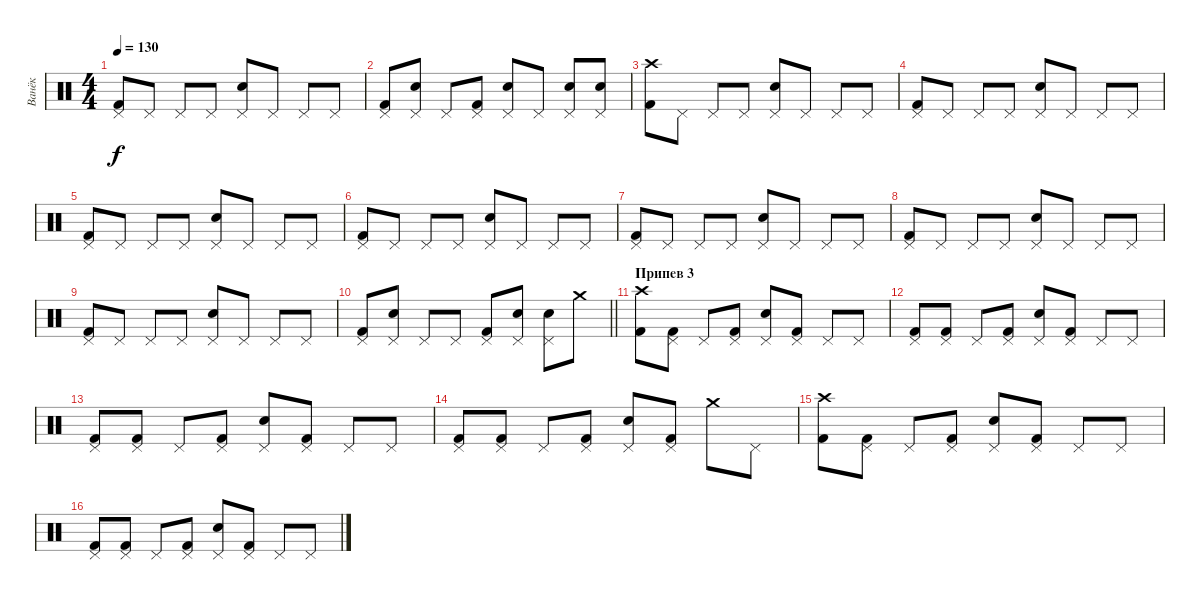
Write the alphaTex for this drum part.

\track ("Ванёк" "Ванёк") {instrument percussion}
\staff {score}
\articulation defaults
\ts (4 4)
\tempo 130
\clef neutral
\ks c
("Pedal Hi-Hat (hit)" "Kick (hit) 2").8{dy f} "Pedal Hi-Hat (hit)".8 "Pedal Hi-Hat (hit)".8 "Pedal Hi-Hat (hit)".8 ("Pedal Hi-Hat (hit)" "Snare (hit) 2").8 "Pedal Hi-Hat (hit)".8 "Pedal Hi-Hat (hit)".8 "Pedal Hi-Hat (hit)".8 |
("Pedal Hi-Hat (hit)" "Kick (hit) 2").8 ("Pedal Hi-Hat (hit)" "Snare (hit) 2").8 "Pedal Hi-Hat (hit)".8 ("Pedal Hi-Hat (hit)" "Kick (hit) 2").8 ("Pedal Hi-Hat (hit)" "Snare (hit) 2").8 "Pedal Hi-Hat (hit)".8 ("Pedal Hi-Hat (hit)" "Snare (hit) 2").8 ("Pedal Hi-Hat (hit)" "Snare (hit) 2").8 |
("Crash high (hit)" "Kick (hit) 2").8 "Pedal Hi-Hat (hit)".8 "Pedal Hi-Hat (hit)".8 "Pedal Hi-Hat (hit)".8 ("Pedal Hi-Hat (hit)" "Snare (hit) 2").8 "Pedal Hi-Hat (hit)".8 "Pedal Hi-Hat (hit)".8 "Pedal Hi-Hat (hit)".8 |
("Pedal Hi-Hat (hit)" "Kick (hit) 2").8 "Pedal Hi-Hat (hit)".8 "Pedal Hi-Hat (hit)".8 "Pedal Hi-Hat (hit)".8 ("Pedal Hi-Hat (hit)" "Snare (hit) 2").8 "Pedal Hi-Hat (hit)".8 "Pedal Hi-Hat (hit)".8 "Pedal Hi-Hat (hit)".8 |
("Pedal Hi-Hat (hit)" "Kick (hit) 2").8 "Pedal Hi-Hat (hit)".8 "Pedal Hi-Hat (hit)".8 "Pedal Hi-Hat (hit)".8 ("Pedal Hi-Hat (hit)" "Snare (hit) 2").8 "Pedal Hi-Hat (hit)".8 "Pedal Hi-Hat (hit)".8 "Pedal Hi-Hat (hit)".8 |
("Pedal Hi-Hat (hit)" "Kick (hit) 2").8 "Pedal Hi-Hat (hit)".8 "Pedal Hi-Hat (hit)".8 "Pedal Hi-Hat (hit)".8 ("Pedal Hi-Hat (hit)" "Snare (hit) 2").8 "Pedal Hi-Hat (hit)".8 "Pedal Hi-Hat (hit)".8 "Pedal Hi-Hat (hit)".8 |
("Pedal Hi-Hat (hit)" "Kick (hit) 2").8 "Pedal Hi-Hat (hit)".8 "Pedal Hi-Hat (hit)".8 "Pedal Hi-Hat (hit)".8 ("Pedal Hi-Hat (hit)" "Snare (hit) 2").8 "Pedal Hi-Hat (hit)".8 "Pedal Hi-Hat (hit)".8 "Pedal Hi-Hat (hit)".8 |
("Pedal Hi-Hat (hit)" "Kick (hit) 2").8 "Pedal Hi-Hat (hit)".8 "Pedal Hi-Hat (hit)".8 "Pedal Hi-Hat (hit)".8 ("Pedal Hi-Hat (hit)" "Snare (hit) 2").8 "Pedal Hi-Hat (hit)".8 "Pedal Hi-Hat (hit)".8 "Pedal Hi-Hat (hit)".8 |
("Pedal Hi-Hat (hit)" "Kick (hit) 2").8 "Pedal Hi-Hat (hit)".8 "Pedal Hi-Hat (hit)".8 "Pedal Hi-Hat (hit)".8 ("Pedal Hi-Hat (hit)" "Snare (hit) 2").8 "Pedal Hi-Hat (hit)".8 "Pedal Hi-Hat (hit)".8 "Pedal Hi-Hat (hit)".8 |
\barLineRight lightlight
("Pedal Hi-Hat (hit)" "Kick (hit) 2").8 ("Pedal Hi-Hat (hit)" "Snare (hit) 2").8 "Pedal Hi-Hat (hit)".8 "Pedal Hi-Hat (hit)".8 ("Pedal Hi-Hat (hit)" "Kick (hit) 2").8 ("Pedal Hi-Hat (hit)" "Snare (hit) 2").8 ("Pedal Hi-Hat (hit)" "Snare (hit) 2").8 "Crash medium (hit)".8 |
\section ("" "Припев 3")
("Crash high (hit)" "Kick (hit) 2").8 ("Pedal Hi-Hat (hit)" "Kick (hit) 2").8 "Pedal Hi-Hat (hit)".8 ("Pedal Hi-Hat (hit)" "Kick (hit) 2").8 ("Pedal Hi-Hat (hit)" "Snare (hit) 2").8 ("Pedal Hi-Hat (hit)" "Kick (hit) 2").8 "Pedal Hi-Hat (hit)".8 "Pedal Hi-Hat (hit)".8 |
("Pedal Hi-Hat (hit)" "Kick (hit) 2").8 ("Pedal Hi-Hat (hit)" "Kick (hit) 2").8 "Pedal Hi-Hat (hit)".8 ("Pedal Hi-Hat (hit)" "Kick (hit) 2").8 ("Pedal Hi-Hat (hit)" "Snare (hit) 2").8 ("Pedal Hi-Hat (hit)" "Kick (hit) 2").8 "Pedal Hi-Hat (hit)".8 "Pedal Hi-Hat (hit)".8 |
("Pedal Hi-Hat (hit)" "Kick (hit) 2").8 ("Pedal Hi-Hat (hit)" "Kick (hit) 2").8 "Pedal Hi-Hat (hit)".8 ("Pedal Hi-Hat (hit)" "Kick (hit) 2").8 ("Pedal Hi-Hat (hit)" "Snare (hit) 2").8 ("Pedal Hi-Hat (hit)" "Kick (hit) 2").8 "Pedal Hi-Hat (hit)".8 "Pedal Hi-Hat (hit)".8 |
("Pedal Hi-Hat (hit)" "Kick (hit) 2").8 ("Pedal Hi-Hat (hit)" "Kick (hit) 2").8 "Pedal Hi-Hat (hit)".8 ("Pedal Hi-Hat (hit)" "Kick (hit) 2").8 ("Pedal Hi-Hat (hit)" "Snare (hit) 2").8 ("Pedal Hi-Hat (hit)" "Kick (hit) 2").8 "Crash medium (hit)".8 "Pedal Hi-Hat (hit)".8 |
("Crash high (hit)" "Kick (hit) 2").8 ("Pedal Hi-Hat (hit)" "Kick (hit) 2").8 "Pedal Hi-Hat (hit)".8 ("Pedal Hi-Hat (hit)" "Kick (hit) 2").8 ("Pedal Hi-Hat (hit)" "Snare (hit) 2").8 ("Pedal Hi-Hat (hit)" "Kick (hit) 2").8 "Pedal Hi-Hat (hit)".8 "Pedal Hi-Hat (hit)".8 |
("Pedal Hi-Hat (hit)" "Kick (hit) 2").8 ("Pedal Hi-Hat (hit)" "Kick (hit) 2").8 "Pedal Hi-Hat (hit)".8 ("Pedal Hi-Hat (hit)" "Kick (hit) 2").8 ("Pedal Hi-Hat (hit)" "Snare (hit) 2").8 ("Pedal Hi-Hat (hit)" "Kick (hit) 2").8 "Pedal Hi-Hat (hit)".8 "Pedal Hi-Hat (hit)".8
